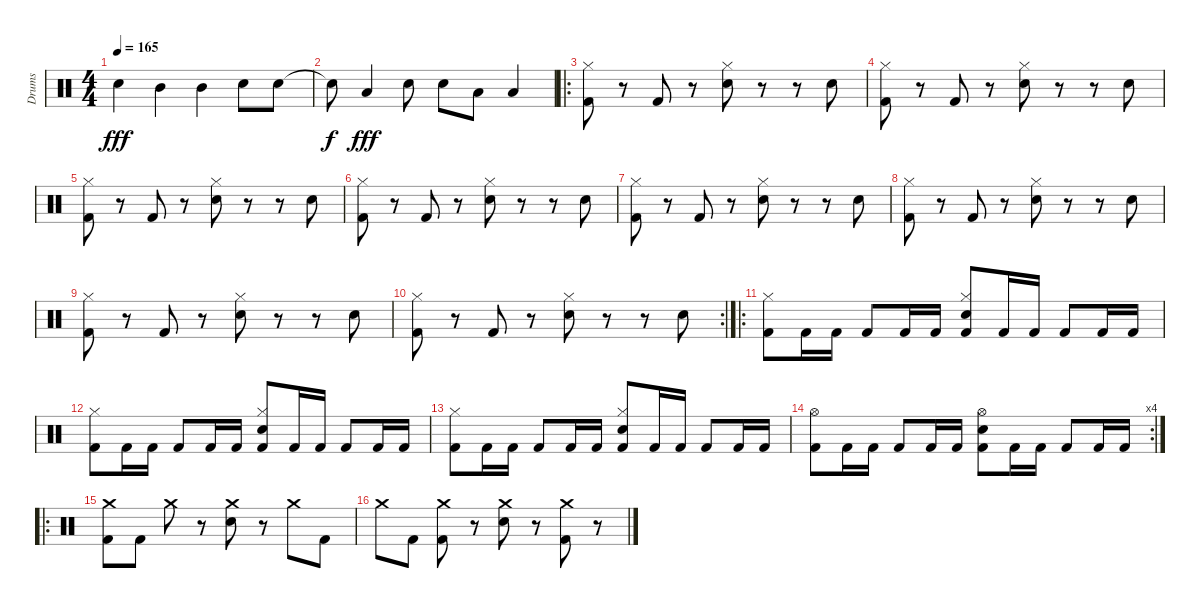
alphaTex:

\track ("Drums" "Drums") {instrument percussion}
\staff {score}
\articulation defaults
\ts (4 4)
\tempo 165
\clef neutral
\ks c "Snare (hit) 2".4{dy fff} "Mid Tom (hit)".4 "Mid Tom (hit)".4 "Snare (hit) 2".8 "Snare (hit) 2".8
|
"Snare (hit) 2"{t}.8{dy f} "Low Tom (hit)".4{dy fff} "Snare (hit) 2".8 "Snare (hit) 2".8 "Low Floor Tom (hit)".8 "Low Floor Tom (hit)".4 |
\ro
("Hi-Hat (closed)" "Kick (hit) 2").8 r.8 "Kick (hit) 2".8 r.8 ("Hi-Hat (closed)" "Snare (hit) 2").8 r.8 r.8 "Snare (hit) 2".8 |
("Hi-Hat (closed)" "Kick (hit) 2").8 r.8 "Kick (hit) 2".8 r.8 ("Hi-Hat (closed)" "Snare (hit) 2").8 r.8 r.8 "Snare (hit) 2".8 |
("Hi-Hat (closed)" "Kick (hit) 2").8 r.8 "Kick (hit) 2".8 r.8 ("Hi-Hat (closed)" "Snare (hit) 2").8 r.8 r.8 "Snare (hit) 2".8 |
("Hi-Hat (closed)" "Kick (hit) 2").8 r.8 "Kick (hit) 2".8 r.8 ("Hi-Hat (closed)" "Snare (hit) 2").8 r.8 r.8 "Snare (hit) 2".8 |
("Hi-Hat (closed)" "Kick (hit) 2").8 r.8 "Kick (hit) 2".8 r.8 ("Hi-Hat (closed)" "Snare (hit) 2").8 r.8 r.8 "Snare (hit) 2".8 |
("Hi-Hat (closed)" "Kick (hit) 2").8 r.8 "Kick (hit) 2".8 r.8 ("Hi-Hat (closed)" "Snare (hit) 2").8 r.8 r.8 "Snare (hit) 2".8 |
("Hi-Hat (closed)" "Kick (hit) 2").8 r.8 "Kick (hit) 2".8 r.8 ("Hi-Hat (closed)" "Snare (hit) 2").8 r.8 r.8 "Snare (hit) 2".8 |
\rc 2
("Hi-Hat (closed)" "Kick (hit) 2").8 r.8 "Kick (hit) 2".8 r.8 ("Hi-Hat (closed)" "Snare (hit) 2").8 r.8 r.8 "Snare (hit) 2".8 |
\ro
("Hi-Hat (closed)" "Kick (hit) 2").8 "Kick (hit) 2".16 "Kick (hit) 2".16 "Kick (hit) 2".8 "Kick (hit) 2".16 "Kick (hit) 2".16 ("Hi-Hat (closed)" "Snare (hit) 2" "Kick (hit) 2").8 "Kick (hit) 2".16 "Kick (hit) 2".16 "Kick (hit) 2".8 "Kick (hit) 2".16 "Kick (hit) 2".16 |
("Hi-Hat (closed)" "Kick (hit) 2").8 "Kick (hit) 2".16 "Kick (hit) 2".16 "Kick (hit) 2".8 "Kick (hit) 2".16 "Kick (hit) 2".16 ("Hi-Hat (closed)" "Snare (hit) 2" "Kick (hit) 2").8 "Kick (hit) 2".16 "Kick (hit) 2".16 "Kick (hit) 2".8 "Kick (hit) 2".16 "Kick (hit) 2".16 |
("Hi-Hat (closed)" "Kick (hit) 2").8 "Kick (hit) 2".16 "Kick (hit) 2".16 "Kick (hit) 2".8 "Kick (hit) 2".16 "Kick (hit) 2".16 ("Hi-Hat (closed)" "Snare (hit) 2" "Kick (hit) 2").8 "Kick (hit) 2".16 "Kick (hit) 2".16 "Kick (hit) 2".8 "Kick (hit) 2".16 "Kick (hit) 2".16 |
\rc 4
("Hi-Hat (open)" "Kick (hit) 2").8 "Kick (hit) 2".16 "Kick (hit) 2".16 "Kick (hit) 2".8 "Kick (hit) 2".16 "Kick (hit) 2".16 ("Hi-Hat (open)" "Snare (hit) 2" "Kick (hit) 2").8 "Kick (hit) 2".16 "Kick (hit) 2".16 "Kick (hit) 2".8 "Kick (hit) 2".16 "Kick (hit) 2".16 |
\ro
("Crash medium (hit)" "Kick (hit) 2").8 "Kick (hit) 2".8 "Crash medium (hit)".8 r.8 ("Crash medium (hit)" "Snare (hit) 2").8 r.8 "Crash medium (hit)".8 "Kick (hit) 2".8 |
"Crash medium (hit)".8 "Kick (hit) 2".8 ("Crash medium (hit)" "Kick (hit) 2").8 r.8 ("Crash medium (hit)" "Snare (hit) 2").8 r.8 ("Crash medium (hit)" "Kick (hit) 2").8 r.8
